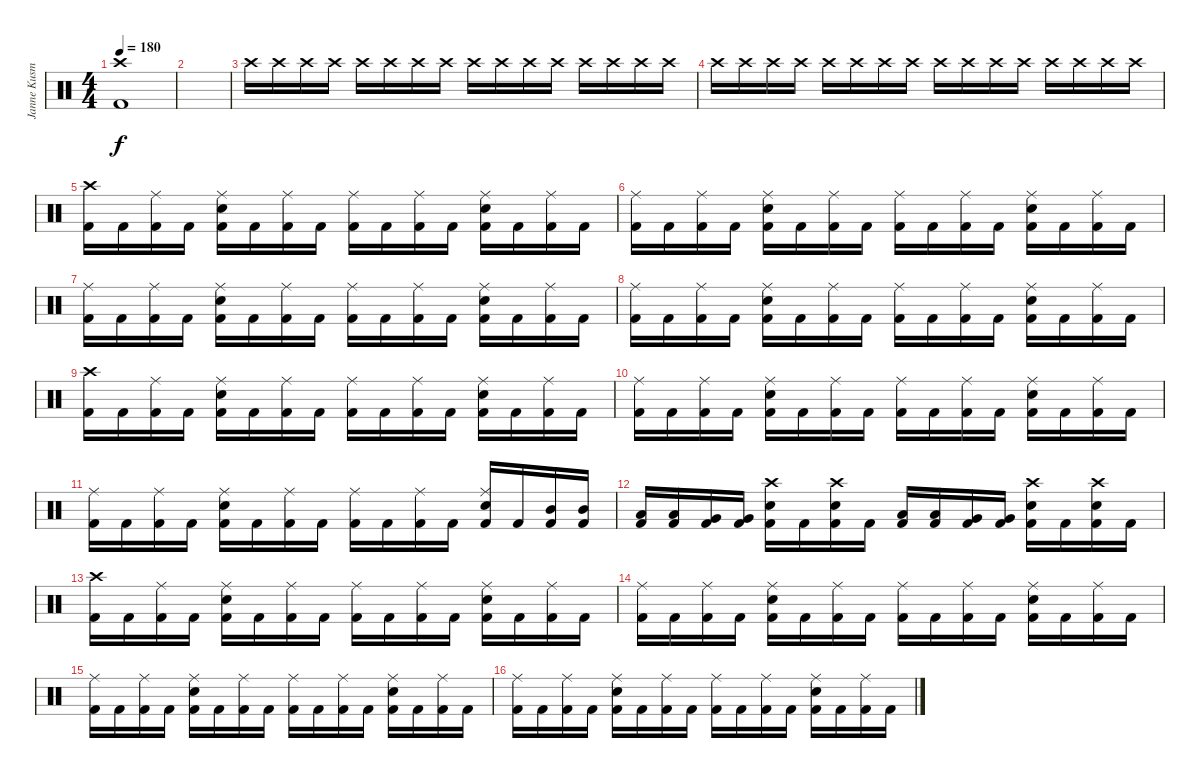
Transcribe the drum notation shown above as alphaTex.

\track ("Janne Kusmin - Drums" "Janne Kusm") {instrument percussion}
\staff {score}
\articulation defaults
\ts (4 4)
\tempo 180
\clef neutral
\ks c
("Crash high (hit)" "Kick (hit) 2").1{dy f} |
|
"Crash high (hit)".16{volume 13} "Crash high (hit)".16 "Crash high (hit)".16 "Crash high (hit)".16 "Crash high (hit)".16 "Crash high (hit)".16 "Crash high (hit)".16 "Crash high (hit)".16 "Crash high (hit)".16 "Crash high (hit)".16 "Crash high (hit)".16 "Crash high (hit)".16 "Crash high (hit)".16 "Crash high (hit)".16 "Crash high (hit)".16 "Crash high (hit)".16 |
"Crash high (hit)".16 "Crash high (hit)".16 "Crash high (hit)".16 "Crash high (hit)".16 "Crash high (hit)".16 "Crash high (hit)".16 "Crash high (hit)".16 "Crash high (hit)".16 "Crash high (hit)".16 "Crash high (hit)".16 "Crash high (hit)".16 "Crash high (hit)".16 "Crash high (hit)".16 "Crash high (hit)".16 "Crash high (hit)".16 "Crash high (hit)".16 |
\section ("" "")
("Crash high (hit)" "Kick (hit) 2").16 "Kick (hit) 2".16 ("Ride (middle)" "Kick (hit) 2").16 "Kick (hit) 2".16 ("Ride (middle)" "Electric Snare (hit)" "Kick (hit) 2").16 "Kick (hit) 2".16 ("Ride (middle)" "Kick (hit) 2").16 "Kick (hit) 2".16 ("Ride (middle)" "Kick (hit) 2").16 "Kick (hit) 2".16 ("Ride (middle)" "Kick (hit) 2").16 "Kick (hit) 2".16 ("Ride (middle)" "Electric Snare (hit)" "Kick (hit) 2").16 "Kick (hit) 2".16 ("Ride (middle)" "Kick (hit) 2").16 "Kick (hit) 2".16 |
("Ride (middle)" "Kick (hit) 2").16 "Kick (hit) 2".16 ("Ride (middle)" "Kick (hit) 2").16 "Kick (hit) 2".16 ("Ride (middle)" "Electric Snare (hit)" "Kick (hit) 2").16 "Kick (hit) 2".16 ("Ride (middle)" "Kick (hit) 2").16 "Kick (hit) 2".16 ("Ride (middle)" "Kick (hit) 2").16 "Kick (hit) 2".16 ("Ride (middle)" "Kick (hit) 2").16 "Kick (hit) 2".16 ("Ride (middle)" "Electric Snare (hit)" "Kick (hit) 2").16 "Kick (hit) 2".16 ("Ride (middle)" "Kick (hit) 2").16 "Kick (hit) 2".16 |
("Ride (middle)" "Kick (hit) 2").16 "Kick (hit) 2".16 ("Ride (middle)" "Kick (hit) 2").16 "Kick (hit) 2".16 ("Ride (middle)" "Electric Snare (hit)" "Kick (hit) 2").16 "Kick (hit) 2".16 ("Ride (middle)" "Kick (hit) 2").16 "Kick (hit) 2".16 ("Ride (middle)" "Kick (hit) 2").16 "Kick (hit) 2".16 ("Ride (middle)" "Kick (hit) 2").16 "Kick (hit) 2".16 ("Ride (middle)" "Electric Snare (hit)" "Kick (hit) 2").16 "Kick (hit) 2".16 ("Ride (middle)" "Kick (hit) 2").16 "Kick (hit) 2".16 |
("Ride (middle)" "Kick (hit) 2").16 "Kick (hit) 2".16 ("Ride (middle)" "Kick (hit) 2").16 "Kick (hit) 2".16 ("Ride (middle)" "Electric Snare (hit)" "Kick (hit) 2").16 "Kick (hit) 2".16 ("Ride (middle)" "Kick (hit) 2").16 "Kick (hit) 2".16 ("Ride (middle)" "Kick (hit) 2").16 "Kick (hit) 2".16 ("Ride (middle)" "Kick (hit) 2").16 "Kick (hit) 2".16 ("Ride (middle)" "Electric Snare (hit)" "Kick (hit) 2").16 "Kick (hit) 2".16 ("Ride (middle)" "Kick (hit) 2").16 "Kick (hit) 2".16 |
("Crash high (hit)" "Kick (hit) 2").16 "Kick (hit) 2".16 ("Ride (middle)" "Kick (hit) 2").16 "Kick (hit) 2".16 ("Ride (middle)" "Electric Snare (hit)" "Kick (hit) 2").16 "Kick (hit) 2".16 ("Ride (middle)" "Kick (hit) 2").16 "Kick (hit) 2".16 ("Ride (middle)" "Kick (hit) 2").16 "Kick (hit) 2".16 ("Ride (middle)" "Kick (hit) 2").16 "Kick (hit) 2".16 ("Ride (middle)" "Electric Snare (hit)" "Kick (hit) 2").16 "Kick (hit) 2".16 ("Ride (middle)" "Kick (hit) 2").16 "Kick (hit) 2".16 |
("Ride (middle)" "Kick (hit) 2").16 "Kick (hit) 2".16 ("Ride (middle)" "Kick (hit) 2").16 "Kick (hit) 2".16 ("Ride (middle)" "Electric Snare (hit)" "Kick (hit) 2").16 "Kick (hit) 2".16 ("Ride (middle)" "Kick (hit) 2").16 "Kick (hit) 2".16 ("Ride (middle)" "Kick (hit) 2").16 "Kick (hit) 2".16 ("Ride (middle)" "Kick (hit) 2").16 "Kick (hit) 2".16 ("Ride (middle)" "Electric Snare (hit)" "Kick (hit) 2").16 "Kick (hit) 2".16 ("Ride (middle)" "Kick (hit) 2").16 "Kick (hit) 2".16 |
("Ride (middle)" "Kick (hit) 2").16 "Kick (hit) 2".16 ("Ride (middle)" "Kick (hit) 2").16 "Kick (hit) 2".16 ("Ride (middle)" "Electric Snare (hit)" "Kick (hit) 2").16 "Kick (hit) 2".16 ("Ride (middle)" "Kick (hit) 2").16 "Kick (hit) 2".16 ("Ride (middle)" "Kick (hit) 2").16 "Kick (hit) 2".16 ("Ride (middle)" "Kick (hit) 2").16 "Kick (hit) 2".16 ("Ride (middle)" "Electric Snare (hit)" "Kick (hit) 2").16 "Kick (hit) 2".16 ("Mid Tom (hit)" "Kick (hit) 2").16 ("Mid Tom (hit)" "Kick (hit) 2").16 |
("Low Tom (hit)" "Kick (hit) 2").16 ("Low Tom (hit)" "Kick (hit) 2").16 ("Very Low Tom (hit)" "Kick (hit) 2").16 ("Very Low Tom (hit)" "Kick (hit) 2").16 ("Crash high (hit)" "Electric Snare (hit)" "Kick (hit) 2").16 "Kick (hit) 2".16 ("Crash high (hit)" "Electric Snare (hit)" "Kick (hit) 2").16 "Kick (hit) 2".16 ("Low Tom (hit)" "Kick (hit) 2").16 ("Low Tom (hit)" "Kick (hit) 2").16 ("Very Low Tom (hit)" "Kick (hit) 2").16 ("Very Low Tom (hit)" "Kick (hit) 2").16 ("Crash high (hit)" "Electric Snare (hit)" "Kick (hit) 2").16 "Kick (hit) 2".16 ("Crash high (hit)" "Electric Snare (hit)" "Kick (hit) 2").16 "Kick (hit) 2".16 |
("Crash high (hit)" "Kick (hit) 2").16 "Kick (hit) 2".16 ("Ride (middle)" "Kick (hit) 2").16 "Kick (hit) 2".16 ("Ride (middle)" "Electric Snare (hit)" "Kick (hit) 2").16 "Kick (hit) 2".16 ("Ride (middle)" "Kick (hit) 2").16 "Kick (hit) 2".16 ("Ride (middle)" "Kick (hit) 2").16 "Kick (hit) 2".16 ("Ride (middle)" "Kick (hit) 2").16 "Kick (hit) 2".16 ("Ride (middle)" "Electric Snare (hit)" "Kick (hit) 2").16 "Kick (hit) 2".16 ("Ride (middle)" "Kick (hit) 2").16 "Kick (hit) 2".16 |
("Ride (middle)" "Kick (hit) 2").16 "Kick (hit) 2".16 ("Ride (middle)" "Kick (hit) 2").16 "Kick (hit) 2".16 ("Ride (middle)" "Electric Snare (hit)" "Kick (hit) 2").16 "Kick (hit) 2".16 ("Ride (middle)" "Kick (hit) 2").16 "Kick (hit) 2".16 ("Ride (middle)" "Kick (hit) 2").16 "Kick (hit) 2".16 ("Ride (middle)" "Kick (hit) 2").16 "Kick (hit) 2".16 ("Ride (middle)" "Electric Snare (hit)" "Kick (hit) 2").16 "Kick (hit) 2".16 ("Ride (middle)" "Kick (hit) 2").16 "Kick (hit) 2".16 |
("Ride (middle)" "Kick (hit) 2").16 "Kick (hit) 2".16 ("Ride (middle)" "Kick (hit) 2").16 "Kick (hit) 2".16 ("Ride (middle)" "Electric Snare (hit)" "Kick (hit) 2").16 "Kick (hit) 2".16 ("Ride (middle)" "Kick (hit) 2").16 "Kick (hit) 2".16 ("Ride (middle)" "Kick (hit) 2").16 "Kick (hit) 2".16 ("Ride (middle)" "Kick (hit) 2").16 "Kick (hit) 2".16 ("Ride (middle)" "Electric Snare (hit)" "Kick (hit) 2").16 "Kick (hit) 2".16 ("Ride (middle)" "Kick (hit) 2").16 "Kick (hit) 2".16 |
("Ride (middle)" "Kick (hit) 2").16 "Kick (hit) 2".16 ("Ride (middle)" "Kick (hit) 2").16 "Kick (hit) 2".16 ("Ride (middle)" "Electric Snare (hit)" "Kick (hit) 2").16 "Kick (hit) 2".16 ("Ride (middle)" "Kick (hit) 2").16 "Kick (hit) 2".16 ("Ride (middle)" "Kick (hit) 2").16 "Kick (hit) 2".16 ("Ride (middle)" "Kick (hit) 2").16 "Kick (hit) 2".16 ("Ride (middle)" "Electric Snare (hit)" "Kick (hit) 2").16 "Kick (hit) 2".16 ("Ride (middle)" "Kick (hit) 2").16 "Kick (hit) 2".16
